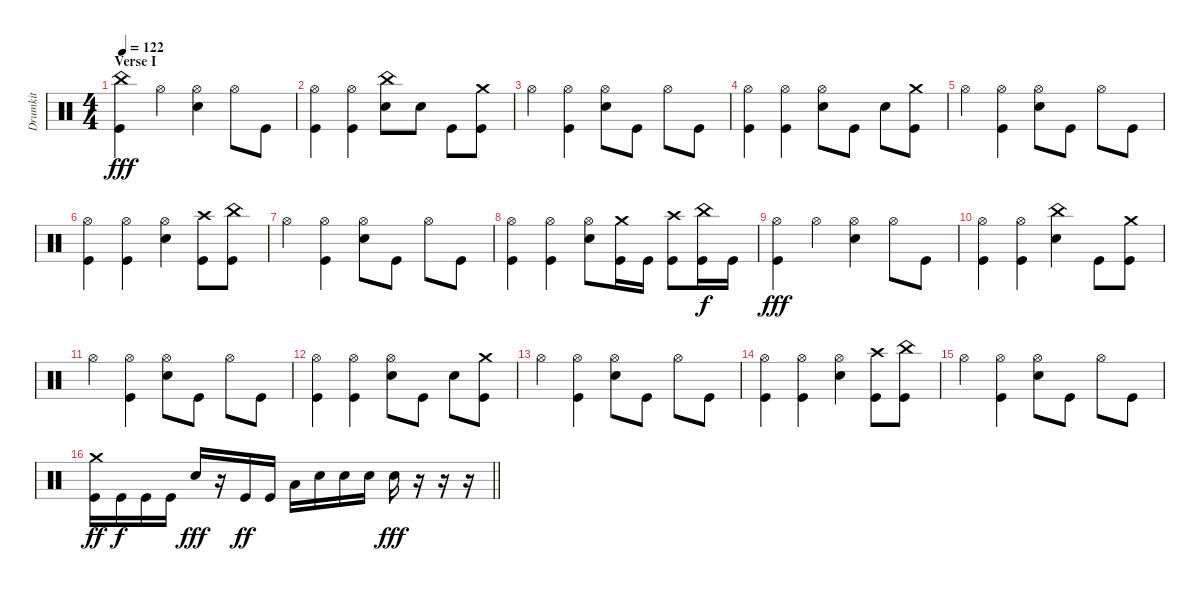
\track ("Drumkit" "Drumkit") {mute instrument percussion}
\staff {score}
\articulation defaults
\ts (4 4)
\section ("" "Verse I")
\tempo 122
\clef neutral
\ks c
("Kick (hit)" "China (hit)").4{dy fff} "Hi-Hat (open)".4 ("Hi-Hat (open)" "Snare (hit) 2").4 "Hi-Hat (open)".8 "Kick (hit)".8 |
("Kick (hit)" "Hi-Hat (open)").4 ("Hi-Hat (open)" "Kick (hit)").4 ("Snare (hit) 2" "China (hit)").8 "Snare (hit) 2".8 "Kick (hit)".8 ("Kick (hit)" "Crash medium (hit)").8 |
"Hi-Hat (open)".4 ("Hi-Hat (open)" "Kick (hit)").4 ("Hi-Hat (open)" "Snare (hit) 2").8 "Kick (hit)".8 "Hi-Hat (open)".8 "Kick (hit)".8 |
("Kick (hit)" "Hi-Hat (open)").4 ("Hi-Hat (open)" "Kick (hit)").4 ("Hi-Hat (open)" "Snare (hit) 2").8 "Kick (hit)".8 "Snare (hit) 2".8 ("Kick (hit)" "Crash medium (hit)").8 |
"Hi-Hat (open)".4 ("Hi-Hat (open)" "Kick (hit)").4 ("Hi-Hat (open)" "Snare (hit) 2").8 "Kick (hit)".8 "Hi-Hat (open)".8 "Kick (hit)".8 |
("Kick (hit)" "Hi-Hat (open)").4 ("Hi-Hat (open)" "Kick (hit)").4 ("Hi-Hat (open)" "Snare (hit) 2").4 ("Kick (hit)" "Crash high (hit)").8 ("Kick (hit)" "China (hit)").8 |
"Hi-Hat (open)".4 ("Hi-Hat (open)" "Kick (hit)").4 ("Hi-Hat (open)" "Snare (hit) 2").8 "Kick (hit)".8 "Hi-Hat (open)".8 "Kick (hit)".8 |
("Kick (hit)" "Hi-Hat (open)").4 ("Hi-Hat (open)" "Kick (hit)").4 ("Hi-Hat (open)" "Snare (hit) 2").8 ("Kick (hit)" "Crash medium (hit)").16 "Kick (hit)".16 ("Kick (hit)" "Crash high (hit)").8 ("Kick (hit)" "China (hit)").16{dy f} "Kick (hit)".16 |
("Kick (hit)" "Hi-Hat (open)").4{dy fff} "Hi-Hat (open)".4 ("Hi-Hat (open)" "Snare (hit) 2").4 "Hi-Hat (open)".8 "Kick (hit)".8 |
("Kick (hit)" "Hi-Hat (open)").4 ("Hi-Hat (open)" "Kick (hit)").4 ("Snare (hit) 2" "China (hit)").4 "Kick (hit)".8 ("Kick (hit)" "Crash medium (hit)").8 |
"Hi-Hat (open)".4 ("Hi-Hat (open)" "Kick (hit)").4 ("Hi-Hat (open)" "Snare (hit) 2").8 "Kick (hit)".8 "Hi-Hat (open)".8 "Kick (hit)".8 |
("Kick (hit)" "Hi-Hat (open)").4 ("Hi-Hat (open)" "Kick (hit)").4 ("Hi-Hat (open)" "Snare (hit) 2").8 "Kick (hit)".8 "Snare (hit) 2".8 ("Kick (hit)" "Crash medium (hit)").8 |
"Hi-Hat (open)".4 ("Hi-Hat (open)" "Kick (hit)").4 ("Hi-Hat (open)" "Snare (hit) 2").8 "Kick (hit)".8 "Hi-Hat (open)".8 "Kick (hit)".8 |
("Kick (hit)" "Hi-Hat (open)").4 ("Hi-Hat (open)" "Kick (hit)").4 ("Hi-Hat (open)" "Snare (hit) 2").4 ("Kick (hit)" "Crash high (hit)").8 ("Kick (hit)" "China (hit)").8 |
"Hi-Hat (open)".4 ("Hi-Hat (open)" "Kick (hit)").4 ("Hi-Hat (open)" "Snare (hit) 2").8 "Kick (hit)".8 "Hi-Hat (open)".8 "Kick (hit)".8 |
\barLineRight lightlight
("Crash medium (hit)" "Kick (hit)").16{dy ff} "Kick (hit)".16{dy f} "Kick (hit)".16 "Kick (hit)".16 "Snare (hit) 2".16{dy fff} r.16 "Kick (hit)".16{dy ff} "Kick (hit)".16 "Low Tom (hit)".16 "Snare (hit) 2".16 "Snare (hit) 2".16 "Snare (hit) 2".16 "Snare (hit) 2".16{dy fff} r.16 r.16 r.16
